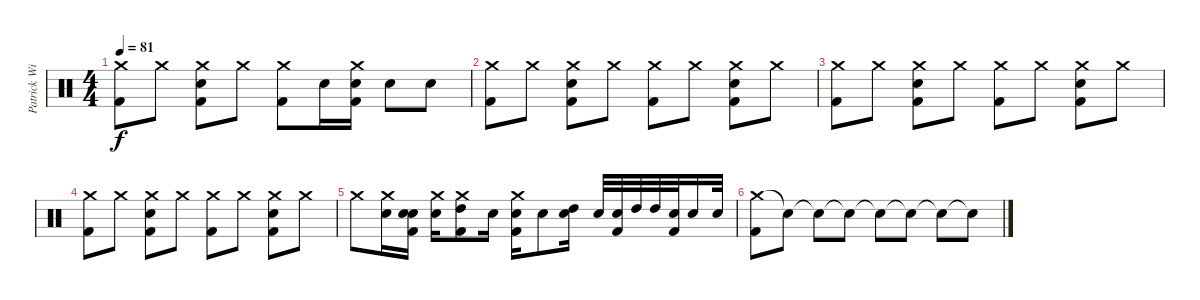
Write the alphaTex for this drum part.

\track ("Patrick Wilson" "Patrick Wi") {instrument percussion}
\staff {score}
\articulation defaults
\ts (4 4)
\tempo 81
\clef neutral
\ks c
("Crash medium (hit)" "Kick (hit) 2").8{dy f} "Crash medium (hit)".8 ("Crash medium (hit)" "Electric Snare (hit)" "Kick (hit) 2").8 "Crash medium (hit)".8 ("Crash medium (hit)" "Kick (hit) 2").8 "Electric Snare (hit)".16 ("Crash medium (hit)" "Electric Snare (hit)" "Kick (hit) 2").16 "Electric Snare (hit)".8 "Electric Snare (hit)".8 |
("Crash medium (hit)" "Kick (hit) 2").8 "Crash medium (hit)".8 ("Crash medium (hit)" "Electric Snare (hit)" "Kick (hit) 2").8 "Crash medium (hit)".8 ("Crash medium (hit)" "Kick (hit) 2").8 "Crash medium (hit)".8 ("Crash medium (hit)" "Electric Snare (hit)" "Kick (hit) 2").8 "Crash medium (hit)".8 |
("Crash medium (hit)" "Kick (hit) 2").8 "Crash medium (hit)".8 ("Crash medium (hit)" "Electric Snare (hit)" "Kick (hit) 2").8 "Crash medium (hit)".8 ("Crash medium (hit)" "Kick (hit) 2").8 "Crash medium (hit)".8 ("Crash medium (hit)" "Electric Snare (hit)" "Kick (hit) 2").8 "Crash medium (hit)".8 |
("Crash medium (hit)" "Kick (hit) 2").8 "Crash medium (hit)".8 ("Crash medium (hit)" "Electric Snare (hit)" "Kick (hit) 2").8 "Crash medium (hit)".8 ("Crash medium (hit)" "Kick (hit) 2").8 "Crash medium (hit)".8 ("Crash medium (hit)" "Electric Snare (hit)" "Kick (hit) 2").8 "Crash medium (hit)".8 |
"Crash medium (hit)".8 ("Electric Snare (hit)" "Crash medium (hit)").16 ("Electric Snare (hit)" "Electric Snare (hit)" "Kick (hit) 2").16 ("Electric Snare (hit)" "Crash medium (hit)").16 ("High Tom (hit)" "Crash medium (hit)" "Kick (hit) 2").8 "Electric Snare (hit)".16 ("Crash medium (hit)" "Electric Snare (hit)" "Kick (hit) 2").16 "Electric Snare (hit)".8 ("High Tom (hit)" "Electric Snare (hit)").16 "Electric Snare (hit)".32 ("Electric Snare (hit)" "Kick (hit) 2").32 "High Tom (hit)".32 "High Tom (hit)".32 ("Electric Snare (hit)" "Kick (hit) 2").32 "Electric Snare (hit)".16 "Electric Snare (hit)".32 |
("Crash medium (hit)" "Kick (hit) 2").8 "Snare (hit)"{t}.8 "Snare (hit)"{t}.8 "Snare (hit)"{t}.8 "Snare (hit)"{t}.8 "Snare (hit)"{t}.8 "Snare (hit)"{t}.8 "Snare (hit)"{t}.8
